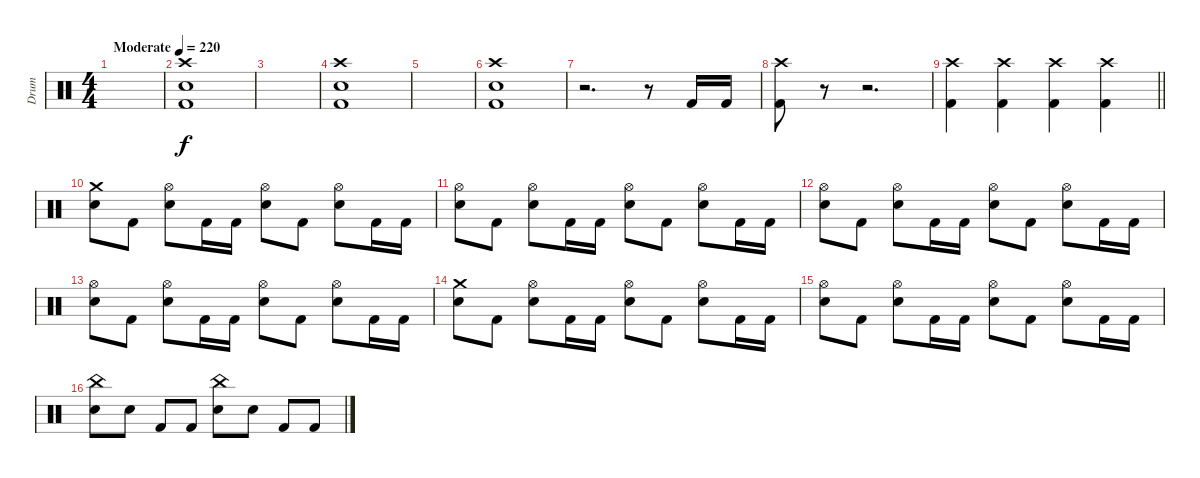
\track ("Drum" "Drum") {instrument percussion}
\staff {score}
\articulation defaults
\ts (4 4)
\tempo (220 "Moderate")
\clef neutral
\ks c
|
("Crash high (hit)" "Electric Snare (hit)" "Kick (hit) 2").1 |
|
("Crash high (hit)" "Electric Snare (hit)" "Kick (hit) 2").1 |
|
("Crash high (hit)" "Electric Snare (hit)" "Kick (hit) 2").1 |
r.2{d} r.8 "Kick (hit) 2".16 "Kick (hit) 2".16 |
("Crash high (hit)" "Kick (hit) 2").8 r.8 r.2{d volume 0} |
\barLineRight lightlight
("Crash high (hit)" "Kick (hit) 2").4{volume 13} ("Crash high (hit)" "Kick (hit) 2").4 ("Crash high (hit)" "Kick (hit) 2").4{volume 13} ("Crash high (hit)" "Kick (hit) 2").4 |
("Crash medium (hit)" "Electric Snare (hit)").8 "Kick (hit) 2".8 ("Hi-Hat (open)" "Electric Snare (hit)").8 "Kick (hit) 2".16 "Kick (hit) 2".16 ("Hi-Hat (open)" "Electric Snare (hit)").8 "Kick (hit) 2".8 ("Hi-Hat (open)" "Electric Snare (hit)").8 "Kick (hit) 2".16 "Kick (hit) 2".16 |
("Hi-Hat (open)" "Electric Snare (hit)").8 "Kick (hit) 2".8 ("Hi-Hat (open)" "Electric Snare (hit)").8 "Kick (hit) 2".16 "Kick (hit) 2".16 ("Hi-Hat (open)" "Electric Snare (hit)").8 "Kick (hit) 2".8 ("Hi-Hat (open)" "Electric Snare (hit)").8 "Kick (hit) 2".16 "Kick (hit) 2".16 |
("Hi-Hat (open)" "Electric Snare (hit)").8 "Kick (hit) 2".8 ("Hi-Hat (open)" "Electric Snare (hit)").8 "Kick (hit) 2".16 "Kick (hit) 2".16 ("Hi-Hat (open)" "Electric Snare (hit)").8 "Kick (hit) 2".8 ("Hi-Hat (open)" "Electric Snare (hit)").8 "Kick (hit) 2".16 "Kick (hit) 2".16 |
("Hi-Hat (open)" "Electric Snare (hit)").8 "Kick (hit) 2".8 ("Hi-Hat (open)" "Electric Snare (hit)").8 "Kick (hit) 2".16 "Kick (hit) 2".16 ("Hi-Hat (open)" "Electric Snare (hit)").8 "Kick (hit) 2".8 ("Hi-Hat (open)" "Electric Snare (hit)").8 "Kick (hit) 2".16 "Kick (hit) 2".16 |
("Crash medium (hit)" "Electric Snare (hit)").8 "Kick (hit) 2".8 ("Hi-Hat (open)" "Electric Snare (hit)").8 "Kick (hit) 2".16 "Kick (hit) 2".16 ("Hi-Hat (open)" "Electric Snare (hit)").8 "Kick (hit) 2".8 ("Hi-Hat (open)" "Electric Snare (hit)").8 "Kick (hit) 2".16 "Kick (hit) 2".16 |
("Hi-Hat (open)" "Electric Snare (hit)").8 "Kick (hit) 2".8 ("Hi-Hat (open)" "Electric Snare (hit)").8 "Kick (hit) 2".16 "Kick (hit) 2".16 ("Hi-Hat (open)" "Electric Snare (hit)").8 "Kick (hit) 2".8 ("Hi-Hat (open)" "Electric Snare (hit)").8 "Kick (hit) 2".16 "Kick (hit) 2".16 |
("China (hit)" "Electric Snare (hit)").8 "Electric Snare (hit)".8 "Kick (hit) 2".8 "Kick (hit) 2".8 ("China (hit)" "Electric Snare (hit)").8 "Electric Snare (hit)".8 "Kick (hit) 2".8 "Kick (hit) 2".8
